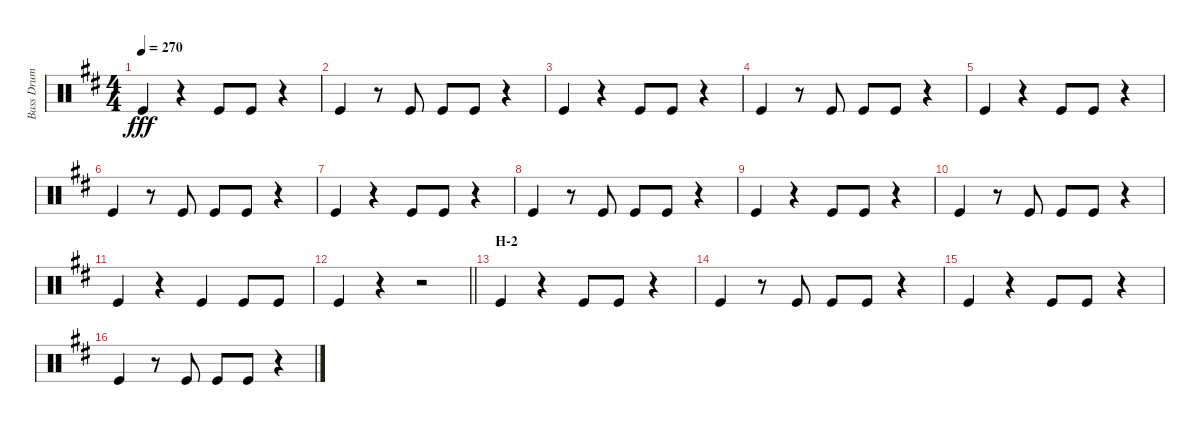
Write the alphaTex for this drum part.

\track ("Bass Drum" "Bass Drum") {instrument percussion}
\staff {score}
\articulation defaults
\ts (4 4)
\tempo 270
\clef neutral
\ks d "Kick (hit)".4{dy fff}
r.4 "Kick (hit)".8 "Kick (hit)".8 r.4 |
"Kick (hit)".4 r.8 "Kick (hit)".8 "Kick (hit)".8 "Kick (hit)".8 r.4 |
"Kick (hit)".4 r.4 "Kick (hit)".8 "Kick (hit)".8 r.4 |
"Kick (hit)".4 r.8 "Kick (hit)".8 "Kick (hit)".8 "Kick (hit)".8 r.4 |
"Kick (hit)".4 r.4 "Kick (hit)".8 "Kick (hit)".8 r.4 |
"Kick (hit)".4 r.8 "Kick (hit)".8 "Kick (hit)".8 "Kick (hit)".8 r.4 |
"Kick (hit)".4 r.4 "Kick (hit)".8 "Kick (hit)".8 r.4 |
"Kick (hit)".4 r.8 "Kick (hit)".8 "Kick (hit)".8 "Kick (hit)".8 r.4 |
"Kick (hit)".4 r.4 "Kick (hit)".8 "Kick (hit)".8 r.4 |
"Kick (hit)".4 r.8 "Kick (hit)".8 "Kick (hit)".8 "Kick (hit)".8 r.4 |
"Kick (hit)".4 r.4 "Kick (hit)".4 "Kick (hit)".8 "Kick (hit)".8 |
\barLineRight lightlight "Kick (hit)".4
r.4 r.2 |
\section ("" "H-2")
"Kick (hit)".4 r.4 "Kick (hit)".8 "Kick (hit)".8 r.4 |
"Kick (hit)".4 r.8 "Kick (hit)".8 "Kick (hit)".8 "Kick (hit)".8 r.4 |
"Kick (hit)".4 r.4 "Kick (hit)".8 "Kick (hit)".8 r.4 |
"Kick (hit)".4 r.8 "Kick (hit)".8 "Kick (hit)".8 "Kick (hit)".8 r.4
